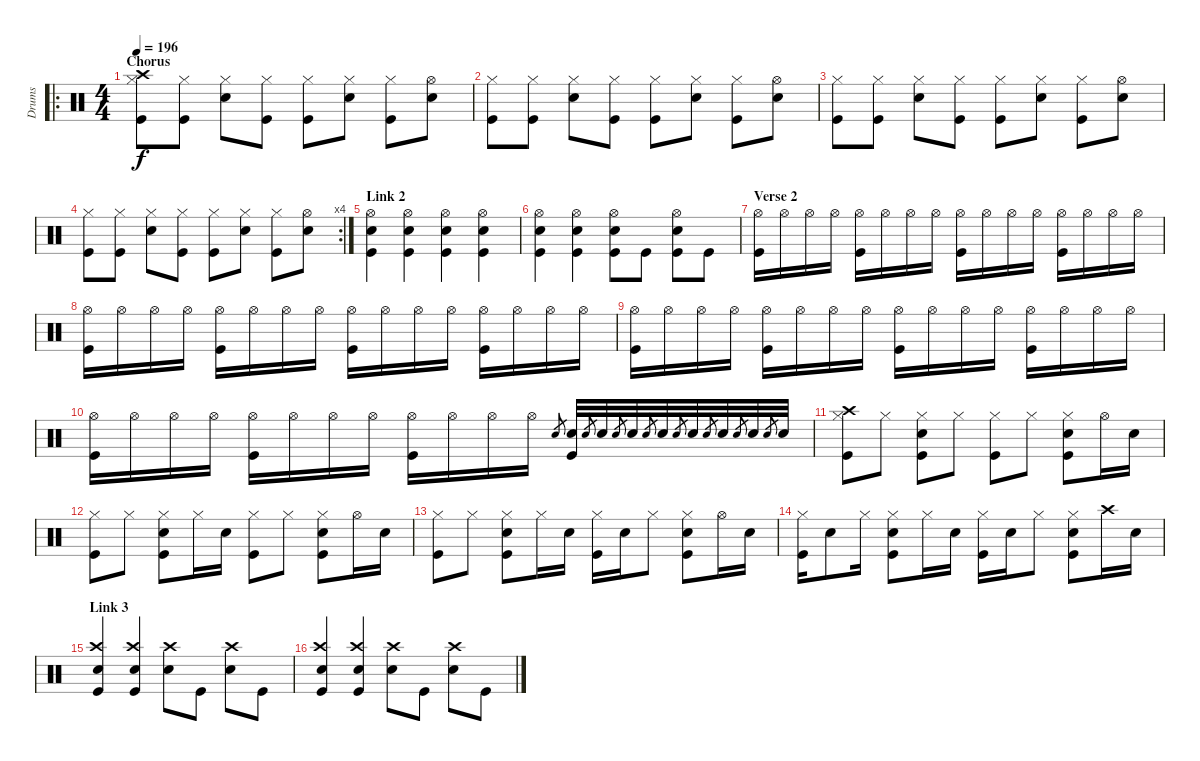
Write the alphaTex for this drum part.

\track ("Drums" "Drums") {instrument percussion}
\staff {score}
\articulation defaults
\ro
\ts (4 4)
\section ("" "Chorus")
\tempo 196
\clef neutral
\ks c
("Hi-Hat (closed)" "Kick (hit)" "Crash high (hit)").8{dy f} ("Hi-Hat (closed)" "Kick (hit)").8 ("Hi-Hat (closed)" "Electric Snare (hit)").8 ("Hi-Hat (closed)" "Kick (hit)").8 ("Hi-Hat (closed)" "Kick (hit)").8 ("Hi-Hat (closed)" "Electric Snare (hit)").8 ("Hi-Hat (closed)" "Kick (hit)").8 ("Hi-Hat (open)" "Electric Snare (hit)").8 |
("Hi-Hat (closed)" "Kick (hit)").8 ("Hi-Hat (closed)" "Kick (hit)").8 ("Hi-Hat (closed)" "Electric Snare (hit)").8 ("Hi-Hat (closed)" "Kick (hit)").8 ("Hi-Hat (closed)" "Kick (hit)").8 ("Hi-Hat (closed)" "Electric Snare (hit)").8 ("Hi-Hat (closed)" "Kick (hit)").8 ("Hi-Hat (open)" "Electric Snare (hit)").8 |
("Hi-Hat (closed)" "Kick (hit)").8 ("Hi-Hat (closed)" "Kick (hit)").8 ("Hi-Hat (closed)" "Electric Snare (hit)").8 ("Hi-Hat (closed)" "Kick (hit)").8 ("Hi-Hat (closed)" "Kick (hit)").8 ("Hi-Hat (closed)" "Electric Snare (hit)").8 ("Hi-Hat (closed)" "Kick (hit)").8 ("Hi-Hat (open)" "Electric Snare (hit)").8 |
\rc 4
("Hi-Hat (closed)" "Kick (hit)").8 ("Hi-Hat (closed)" "Kick (hit)").8 ("Hi-Hat (closed)" "Electric Snare (hit)").8 ("Hi-Hat (closed)" "Kick (hit)").8 ("Hi-Hat (closed)" "Kick (hit)").8 ("Hi-Hat (closed)" "Electric Snare (hit)").8 ("Hi-Hat (closed)" "Kick (hit)").8 ("Hi-Hat (open)" "Electric Snare (hit)").8 |
\section ("" "Link 2")
("Hi-Hat (open)" "Electric Snare (hit)" "Kick (hit)").4 ("Hi-Hat (open)" "Electric Snare (hit)" "Kick (hit)").4 ("Hi-Hat (open)" "Electric Snare (hit)" "Kick (hit)").4 ("Hi-Hat (open)" "Electric Snare (hit)" "Kick (hit)").4 |
("Hi-Hat (open)" "Electric Snare (hit)" "Kick (hit)").4 ("Hi-Hat (open)" "Electric Snare (hit)" "Kick (hit)").4 ("Hi-Hat (open)" "Electric Snare (hit)" "Kick (hit)").8 "Kick (hit)".8 ("Hi-Hat (open)" "Electric Snare (hit)" "Kick (hit)").8 "Kick (hit)".8 |
\section ("" "Verse 2")
("Kick (hit)" "Hi-Hat (open)").16 "Hi-Hat (open)".16 "Hi-Hat (open)".16 "Hi-Hat (open)".16 ("Kick (hit)" "Hi-Hat (open)").16 "Hi-Hat (open)".16 "Hi-Hat (open)".16 "Hi-Hat (open)".16 ("Kick (hit)" "Hi-Hat (open)").16 "Hi-Hat (open)".16 "Hi-Hat (open)".16 "Hi-Hat (open)".16 ("Kick (hit)" "Hi-Hat (open)").16 "Hi-Hat (open)".16 "Hi-Hat (open)".16 "Hi-Hat (open)".16 |
("Kick (hit)" "Hi-Hat (open)").16 "Hi-Hat (open)".16 "Hi-Hat (open)".16 "Hi-Hat (open)".16 ("Kick (hit)" "Hi-Hat (open)").16 "Hi-Hat (open)".16 "Hi-Hat (open)".16 "Hi-Hat (open)".16 ("Kick (hit)" "Hi-Hat (open)").16 "Hi-Hat (open)".16 "Hi-Hat (open)".16 "Hi-Hat (open)".16 ("Kick (hit)" "Hi-Hat (open)").16 "Hi-Hat (open)".16 "Hi-Hat (open)".16 "Hi-Hat (open)".16 |
("Kick (hit)" "Hi-Hat (open)").16 "Hi-Hat (open)".16 "Hi-Hat (open)".16 "Hi-Hat (open)".16 ("Kick (hit)" "Hi-Hat (open)").16 "Hi-Hat (open)".16 "Hi-Hat (open)".16 "Hi-Hat (open)".16 ("Kick (hit)" "Hi-Hat (open)").16 "Hi-Hat (open)".16 "Hi-Hat (open)".16 "Hi-Hat (open)".16 ("Kick (hit)" "Hi-Hat (open)").16 "Hi-Hat (open)".16 "Hi-Hat (open)".16 "Hi-Hat (open)".16 |
("Kick (hit)" "Hi-Hat (open)").16 "Hi-Hat (open)".16 "Hi-Hat (open)".16 "Hi-Hat (open)".16 ("Kick (hit)" "Hi-Hat (open)").16 "Hi-Hat (open)".16 "Hi-Hat (open)".16 "Hi-Hat (open)".16 ("Kick (hit)" "Hi-Hat (open)").16 "Hi-Hat (open)".16 "Hi-Hat (open)".16 "Hi-Hat (open)".16 "Electric Snare (hit)".8{gr} ("Kick (hit)" "Electric Snare (hit)").32 "Electric Snare (hit)".8{gr} "Electric Snare (hit)".32 "Electric Snare (hit)".8{gr} "Electric Snare (hit)".32 "Electric Snare (hit)".8{gr} "Electric Snare (hit)".32 "Electric Snare (hit)".8{gr} "Electric Snare (hit)".32 "Electric Snare (hit)".8{gr} "Electric Snare (hit)".32 "Electric Snare (hit)".8{gr} "Electric Snare (hit)".32 "Electric Snare (hit)".8{gr} "Electric Snare (hit)".32 |
("Kick (hit)" "Hi-Hat (closed)" "Crash high (hit)").8 "Hi-Hat (closed)".8 ("Kick (hit)" "Hi-Hat (closed)" "Electric Snare (hit)").8 "Hi-Hat (closed)".8 ("Kick (hit)" "Hi-Hat (closed)").8 "Hi-Hat (closed)".8 ("Kick (hit)" "Hi-Hat (closed)" "Electric Snare (hit)").8 "Hi-Hat (open)".16 "Electric Snare (hit)".16 |
("Kick (hit)" "Hi-Hat (closed)").8 "Hi-Hat (closed)".8 ("Kick (hit)" "Hi-Hat (closed)" "Electric Snare (hit)").8 "Hi-Hat (closed)".16 "Electric Snare (hit)".16 ("Kick (hit)" "Hi-Hat (closed)").8 "Hi-Hat (closed)".8 ("Kick (hit)" "Hi-Hat (closed)" "Electric Snare (hit)").8 "Hi-Hat (open)".16 "Electric Snare (hit)".16 |
("Kick (hit)" "Hi-Hat (closed)").8 "Hi-Hat (closed)".8 ("Kick (hit)" "Hi-Hat (closed)" "Electric Snare (hit)").8 "Hi-Hat (closed)".16 "Electric Snare (hit)".16 ("Kick (hit)" "Hi-Hat (closed)").16 "Electric Snare (hit)".16 "Hi-Hat (closed)".8 ("Kick (hit)" "Hi-Hat (closed)" "Electric Snare (hit)").8 "Hi-Hat (open)".16 "Electric Snare (hit)".16 |
("Kick (hit)" "Hi-Hat (closed)").16 "Electric Snare (hit)".8 "Hi-Hat (closed)".16 ("Kick (hit)" "Hi-Hat (closed)" "Electric Snare (hit)").8 "Hi-Hat (closed)".16 "Electric Snare (hit)".16 ("Kick (hit)" "Hi-Hat (closed)").16 "Electric Snare (hit)".16 "Hi-Hat (closed)".8 ("Kick (hit)" "Hi-Hat (closed)" "Electric Snare (hit)").8 "Crash high (hit)".16 "Electric Snare (hit)".16 |
\section ("" "Link 3")
("Crash high (hit)" "Kick (hit)" "Electric Snare (hit)").4 ("Crash high (hit)" "Kick (hit)" "Electric Snare (hit)").4 ("Crash high (hit)" "Electric Snare (hit)").8 "Kick (hit)".8 ("Crash high (hit)" "Electric Snare (hit)").8 "Kick (hit)".8 |
("Crash high (hit)" "Kick (hit)" "Electric Snare (hit)").4 ("Crash high (hit)" "Kick (hit)" "Electric Snare (hit)").4 ("Crash high (hit)" "Electric Snare (hit)").8 "Kick (hit)".8 ("Crash high (hit)" "Electric Snare (hit)").8 "Kick (hit)".8
